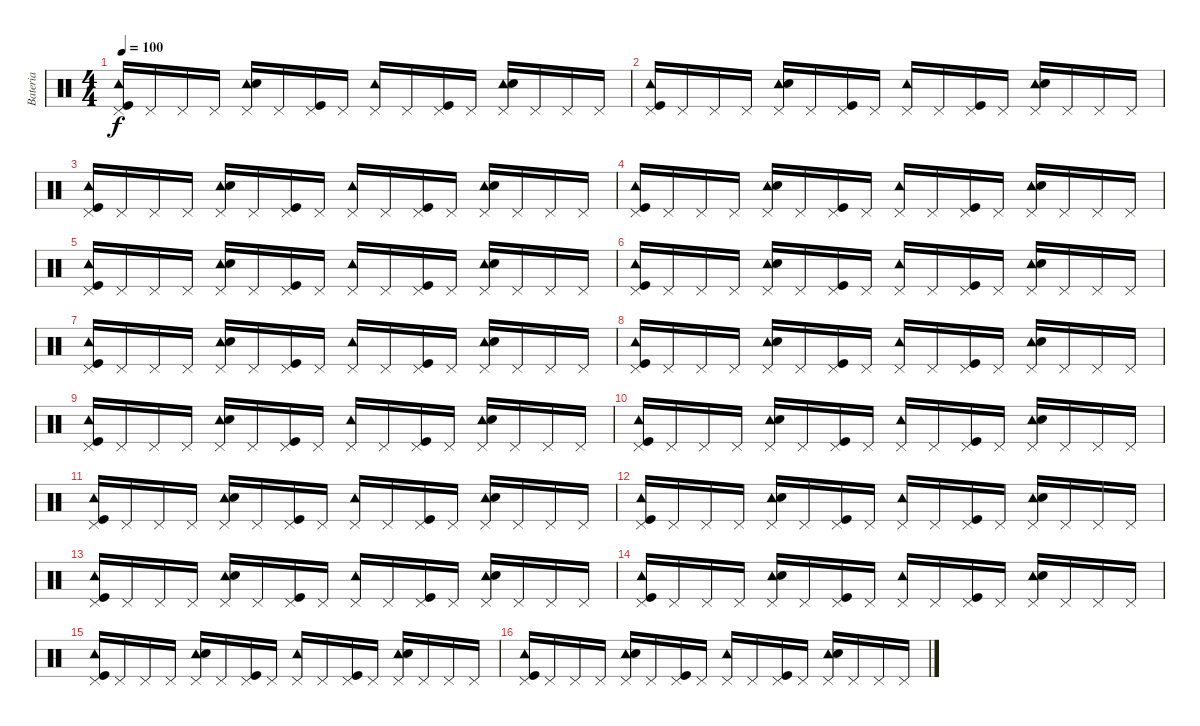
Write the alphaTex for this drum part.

\track ("Bateria" "Bateria") {instrument percussion}
\staff {score}
\articulation defaults
\ts (4 4)
\tempo 100
\clef neutral
\ks c
("Tambourine (hit)" "Pedal Hi-Hat (hit)" "Kick (hit)").16{dy f} "Pedal Hi-Hat (hit)".16 "Pedal Hi-Hat (hit)".16 "Pedal Hi-Hat (hit)".16 ("Tambourine (hit)" "Pedal Hi-Hat (hit)" "Snare (hit) 2").16 "Pedal Hi-Hat (hit)".16 ("Pedal Hi-Hat (hit)" "Kick (hit)").16 "Pedal Hi-Hat (hit)".16 ("Tambourine (hit)" "Pedal Hi-Hat (hit)").16 "Pedal Hi-Hat (hit)".16 ("Pedal Hi-Hat (hit)" "Kick (hit)").16 "Pedal Hi-Hat (hit)".16 ("Tambourine (hit)" "Pedal Hi-Hat (hit)" "Snare (hit) 2").16 "Pedal Hi-Hat (hit)".16 "Pedal Hi-Hat (hit)".16 "Pedal Hi-Hat (hit)".16 |
("Tambourine (hit)" "Pedal Hi-Hat (hit)" "Kick (hit)").16 "Pedal Hi-Hat (hit)".16 "Pedal Hi-Hat (hit)".16 "Pedal Hi-Hat (hit)".16 ("Tambourine (hit)" "Pedal Hi-Hat (hit)" "Snare (hit) 2").16 "Pedal Hi-Hat (hit)".16 ("Pedal Hi-Hat (hit)" "Kick (hit)").16 "Pedal Hi-Hat (hit)".16 ("Tambourine (hit)" "Pedal Hi-Hat (hit)").16 "Pedal Hi-Hat (hit)".16 ("Pedal Hi-Hat (hit)" "Kick (hit)").16 "Pedal Hi-Hat (hit)".16 ("Tambourine (hit)" "Pedal Hi-Hat (hit)" "Snare (hit) 2").16 "Pedal Hi-Hat (hit)".16 "Pedal Hi-Hat (hit)".16 "Pedal Hi-Hat (hit)".16 |
("Tambourine (hit)" "Pedal Hi-Hat (hit)" "Kick (hit)").16 "Pedal Hi-Hat (hit)".16 "Pedal Hi-Hat (hit)".16 "Pedal Hi-Hat (hit)".16 ("Tambourine (hit)" "Pedal Hi-Hat (hit)" "Snare (hit) 2").16 "Pedal Hi-Hat (hit)".16 ("Pedal Hi-Hat (hit)" "Kick (hit)").16 "Pedal Hi-Hat (hit)".16 ("Tambourine (hit)" "Pedal Hi-Hat (hit)").16 "Pedal Hi-Hat (hit)".16 ("Pedal Hi-Hat (hit)" "Kick (hit)").16 "Pedal Hi-Hat (hit)".16 ("Tambourine (hit)" "Pedal Hi-Hat (hit)" "Snare (hit) 2").16 "Pedal Hi-Hat (hit)".16 "Pedal Hi-Hat (hit)".16 "Pedal Hi-Hat (hit)".16 |
("Tambourine (hit)" "Pedal Hi-Hat (hit)" "Kick (hit)").16 "Pedal Hi-Hat (hit)".16 "Pedal Hi-Hat (hit)".16 "Pedal Hi-Hat (hit)".16 ("Tambourine (hit)" "Pedal Hi-Hat (hit)" "Snare (hit) 2").16 "Pedal Hi-Hat (hit)".16 ("Pedal Hi-Hat (hit)" "Kick (hit)").16 "Pedal Hi-Hat (hit)".16 ("Tambourine (hit)" "Pedal Hi-Hat (hit)").16 "Pedal Hi-Hat (hit)".16 ("Pedal Hi-Hat (hit)" "Kick (hit)").16 "Pedal Hi-Hat (hit)".16 ("Tambourine (hit)" "Pedal Hi-Hat (hit)" "Snare (hit) 2").16 "Pedal Hi-Hat (hit)".16 "Pedal Hi-Hat (hit)".16 "Pedal Hi-Hat (hit)".16 |
("Tambourine (hit)" "Pedal Hi-Hat (hit)" "Kick (hit)").16 "Pedal Hi-Hat (hit)".16 "Pedal Hi-Hat (hit)".16 "Pedal Hi-Hat (hit)".16 ("Tambourine (hit)" "Pedal Hi-Hat (hit)" "Snare (hit) 2").16 "Pedal Hi-Hat (hit)".16 ("Pedal Hi-Hat (hit)" "Kick (hit)").16 "Pedal Hi-Hat (hit)".16 ("Tambourine (hit)" "Pedal Hi-Hat (hit)").16 "Pedal Hi-Hat (hit)".16 ("Pedal Hi-Hat (hit)" "Kick (hit)").16 "Pedal Hi-Hat (hit)".16 ("Tambourine (hit)" "Pedal Hi-Hat (hit)" "Snare (hit) 2").16 "Pedal Hi-Hat (hit)".16 "Pedal Hi-Hat (hit)".16 "Pedal Hi-Hat (hit)".16 |
("Tambourine (hit)" "Pedal Hi-Hat (hit)" "Kick (hit)").16 "Pedal Hi-Hat (hit)".16 "Pedal Hi-Hat (hit)".16 "Pedal Hi-Hat (hit)".16 ("Tambourine (hit)" "Pedal Hi-Hat (hit)" "Snare (hit) 2").16 "Pedal Hi-Hat (hit)".16 ("Pedal Hi-Hat (hit)" "Kick (hit)").16 "Pedal Hi-Hat (hit)".16 ("Tambourine (hit)" "Pedal Hi-Hat (hit)").16 "Pedal Hi-Hat (hit)".16 ("Pedal Hi-Hat (hit)" "Kick (hit)").16 "Pedal Hi-Hat (hit)".16 ("Tambourine (hit)" "Pedal Hi-Hat (hit)" "Snare (hit) 2").16 "Pedal Hi-Hat (hit)".16 "Pedal Hi-Hat (hit)".16 "Pedal Hi-Hat (hit)".16 |
("Tambourine (hit)" "Pedal Hi-Hat (hit)" "Kick (hit)").16 "Pedal Hi-Hat (hit)".16 "Pedal Hi-Hat (hit)".16 "Pedal Hi-Hat (hit)".16 ("Tambourine (hit)" "Pedal Hi-Hat (hit)" "Snare (hit) 2").16 "Pedal Hi-Hat (hit)".16 ("Pedal Hi-Hat (hit)" "Kick (hit)").16 "Pedal Hi-Hat (hit)".16 ("Tambourine (hit)" "Pedal Hi-Hat (hit)").16 "Pedal Hi-Hat (hit)".16 ("Pedal Hi-Hat (hit)" "Kick (hit)").16 "Pedal Hi-Hat (hit)".16 ("Tambourine (hit)" "Pedal Hi-Hat (hit)" "Snare (hit) 2").16 "Pedal Hi-Hat (hit)".16 "Pedal Hi-Hat (hit)".16 "Pedal Hi-Hat (hit)".16 |
("Tambourine (hit)" "Pedal Hi-Hat (hit)" "Kick (hit)").16 "Pedal Hi-Hat (hit)".16 "Pedal Hi-Hat (hit)".16 "Pedal Hi-Hat (hit)".16 ("Tambourine (hit)" "Pedal Hi-Hat (hit)" "Snare (hit) 2").16 "Pedal Hi-Hat (hit)".16 ("Pedal Hi-Hat (hit)" "Kick (hit)").16 "Pedal Hi-Hat (hit)".16 ("Tambourine (hit)" "Pedal Hi-Hat (hit)").16 "Pedal Hi-Hat (hit)".16 ("Pedal Hi-Hat (hit)" "Kick (hit)").16 "Pedal Hi-Hat (hit)".16 ("Tambourine (hit)" "Pedal Hi-Hat (hit)" "Snare (hit) 2").16 "Pedal Hi-Hat (hit)".16 "Pedal Hi-Hat (hit)".16 "Pedal Hi-Hat (hit)".16 |
("Tambourine (hit)" "Pedal Hi-Hat (hit)" "Kick (hit)").16 "Pedal Hi-Hat (hit)".16 "Pedal Hi-Hat (hit)".16 "Pedal Hi-Hat (hit)".16 ("Tambourine (hit)" "Pedal Hi-Hat (hit)" "Snare (hit) 2").16 "Pedal Hi-Hat (hit)".16 ("Pedal Hi-Hat (hit)" "Kick (hit)").16 "Pedal Hi-Hat (hit)".16 ("Tambourine (hit)" "Pedal Hi-Hat (hit)").16 "Pedal Hi-Hat (hit)".16 ("Pedal Hi-Hat (hit)" "Kick (hit)").16 "Pedal Hi-Hat (hit)".16 ("Tambourine (hit)" "Pedal Hi-Hat (hit)" "Snare (hit) 2").16 "Pedal Hi-Hat (hit)".16 "Pedal Hi-Hat (hit)".16 "Pedal Hi-Hat (hit)".16 |
("Tambourine (hit)" "Pedal Hi-Hat (hit)" "Kick (hit)").16 "Pedal Hi-Hat (hit)".16 "Pedal Hi-Hat (hit)".16 "Pedal Hi-Hat (hit)".16 ("Tambourine (hit)" "Pedal Hi-Hat (hit)" "Snare (hit) 2").16 "Pedal Hi-Hat (hit)".16 ("Pedal Hi-Hat (hit)" "Kick (hit)").16 "Pedal Hi-Hat (hit)".16 ("Tambourine (hit)" "Pedal Hi-Hat (hit)").16 "Pedal Hi-Hat (hit)".16 ("Pedal Hi-Hat (hit)" "Kick (hit)").16 "Pedal Hi-Hat (hit)".16 ("Tambourine (hit)" "Pedal Hi-Hat (hit)" "Snare (hit) 2").16 "Pedal Hi-Hat (hit)".16 "Pedal Hi-Hat (hit)".16 "Pedal Hi-Hat (hit)".16 |
("Tambourine (hit)" "Pedal Hi-Hat (hit)" "Kick (hit)").16 "Pedal Hi-Hat (hit)".16 "Pedal Hi-Hat (hit)".16 "Pedal Hi-Hat (hit)".16 ("Tambourine (hit)" "Pedal Hi-Hat (hit)" "Snare (hit) 2").16 "Pedal Hi-Hat (hit)".16 ("Pedal Hi-Hat (hit)" "Kick (hit)").16 "Pedal Hi-Hat (hit)".16 ("Tambourine (hit)" "Pedal Hi-Hat (hit)").16 "Pedal Hi-Hat (hit)".16 ("Pedal Hi-Hat (hit)" "Kick (hit)").16 "Pedal Hi-Hat (hit)".16 ("Tambourine (hit)" "Pedal Hi-Hat (hit)" "Snare (hit) 2").16 "Pedal Hi-Hat (hit)".16 "Pedal Hi-Hat (hit)".16 "Pedal Hi-Hat (hit)".16 |
("Tambourine (hit)" "Pedal Hi-Hat (hit)" "Kick (hit)").16 "Pedal Hi-Hat (hit)".16 "Pedal Hi-Hat (hit)".16 "Pedal Hi-Hat (hit)".16 ("Tambourine (hit)" "Pedal Hi-Hat (hit)" "Snare (hit) 2").16 "Pedal Hi-Hat (hit)".16 ("Pedal Hi-Hat (hit)" "Kick (hit)").16 "Pedal Hi-Hat (hit)".16 ("Tambourine (hit)" "Pedal Hi-Hat (hit)").16 "Pedal Hi-Hat (hit)".16 ("Pedal Hi-Hat (hit)" "Kick (hit)").16 "Pedal Hi-Hat (hit)".16 ("Tambourine (hit)" "Pedal Hi-Hat (hit)" "Snare (hit) 2").16 "Pedal Hi-Hat (hit)".16 "Pedal Hi-Hat (hit)".16 "Pedal Hi-Hat (hit)".16 |
("Tambourine (hit)" "Pedal Hi-Hat (hit)" "Kick (hit)").16 "Pedal Hi-Hat (hit)".16 "Pedal Hi-Hat (hit)".16 "Pedal Hi-Hat (hit)".16 ("Tambourine (hit)" "Pedal Hi-Hat (hit)" "Snare (hit) 2").16 "Pedal Hi-Hat (hit)".16 ("Pedal Hi-Hat (hit)" "Kick (hit)").16 "Pedal Hi-Hat (hit)".16 ("Tambourine (hit)" "Pedal Hi-Hat (hit)").16 "Pedal Hi-Hat (hit)".16 ("Pedal Hi-Hat (hit)" "Kick (hit)").16 "Pedal Hi-Hat (hit)".16 ("Tambourine (hit)" "Pedal Hi-Hat (hit)" "Snare (hit) 2").16 "Pedal Hi-Hat (hit)".16 "Pedal Hi-Hat (hit)".16 "Pedal Hi-Hat (hit)".16 |
("Tambourine (hit)" "Pedal Hi-Hat (hit)" "Kick (hit)").16 "Pedal Hi-Hat (hit)".16 "Pedal Hi-Hat (hit)".16 "Pedal Hi-Hat (hit)".16 ("Tambourine (hit)" "Pedal Hi-Hat (hit)" "Snare (hit) 2").16 "Pedal Hi-Hat (hit)".16 ("Pedal Hi-Hat (hit)" "Kick (hit)").16 "Pedal Hi-Hat (hit)".16 ("Tambourine (hit)" "Pedal Hi-Hat (hit)").16 "Pedal Hi-Hat (hit)".16 ("Pedal Hi-Hat (hit)" "Kick (hit)").16 "Pedal Hi-Hat (hit)".16 ("Tambourine (hit)" "Pedal Hi-Hat (hit)" "Snare (hit) 2").16 "Pedal Hi-Hat (hit)".16 "Pedal Hi-Hat (hit)".16 "Pedal Hi-Hat (hit)".16 |
("Tambourine (hit)" "Pedal Hi-Hat (hit)" "Kick (hit)").16 "Pedal Hi-Hat (hit)".16 "Pedal Hi-Hat (hit)".16 "Pedal Hi-Hat (hit)".16 ("Tambourine (hit)" "Pedal Hi-Hat (hit)" "Snare (hit) 2").16 "Pedal Hi-Hat (hit)".16 ("Pedal Hi-Hat (hit)" "Kick (hit)").16 "Pedal Hi-Hat (hit)".16 ("Tambourine (hit)" "Pedal Hi-Hat (hit)").16 "Pedal Hi-Hat (hit)".16 ("Pedal Hi-Hat (hit)" "Kick (hit)").16 "Pedal Hi-Hat (hit)".16 ("Tambourine (hit)" "Pedal Hi-Hat (hit)" "Snare (hit) 2").16 "Pedal Hi-Hat (hit)".16 "Pedal Hi-Hat (hit)".16 "Pedal Hi-Hat (hit)".16 |
("Tambourine (hit)" "Pedal Hi-Hat (hit)" "Kick (hit)").16 "Pedal Hi-Hat (hit)".16 "Pedal Hi-Hat (hit)".16 "Pedal Hi-Hat (hit)".16 ("Tambourine (hit)" "Pedal Hi-Hat (hit)" "Snare (hit) 2").16 "Pedal Hi-Hat (hit)".16 ("Pedal Hi-Hat (hit)" "Kick (hit)").16 "Pedal Hi-Hat (hit)".16 ("Tambourine (hit)" "Pedal Hi-Hat (hit)").16 "Pedal Hi-Hat (hit)".16 ("Pedal Hi-Hat (hit)" "Kick (hit)").16 "Pedal Hi-Hat (hit)".16 ("Tambourine (hit)" "Pedal Hi-Hat (hit)" "Snare (hit) 2").16 "Pedal Hi-Hat (hit)".16 "Pedal Hi-Hat (hit)".16 "Pedal Hi-Hat (hit)".16
